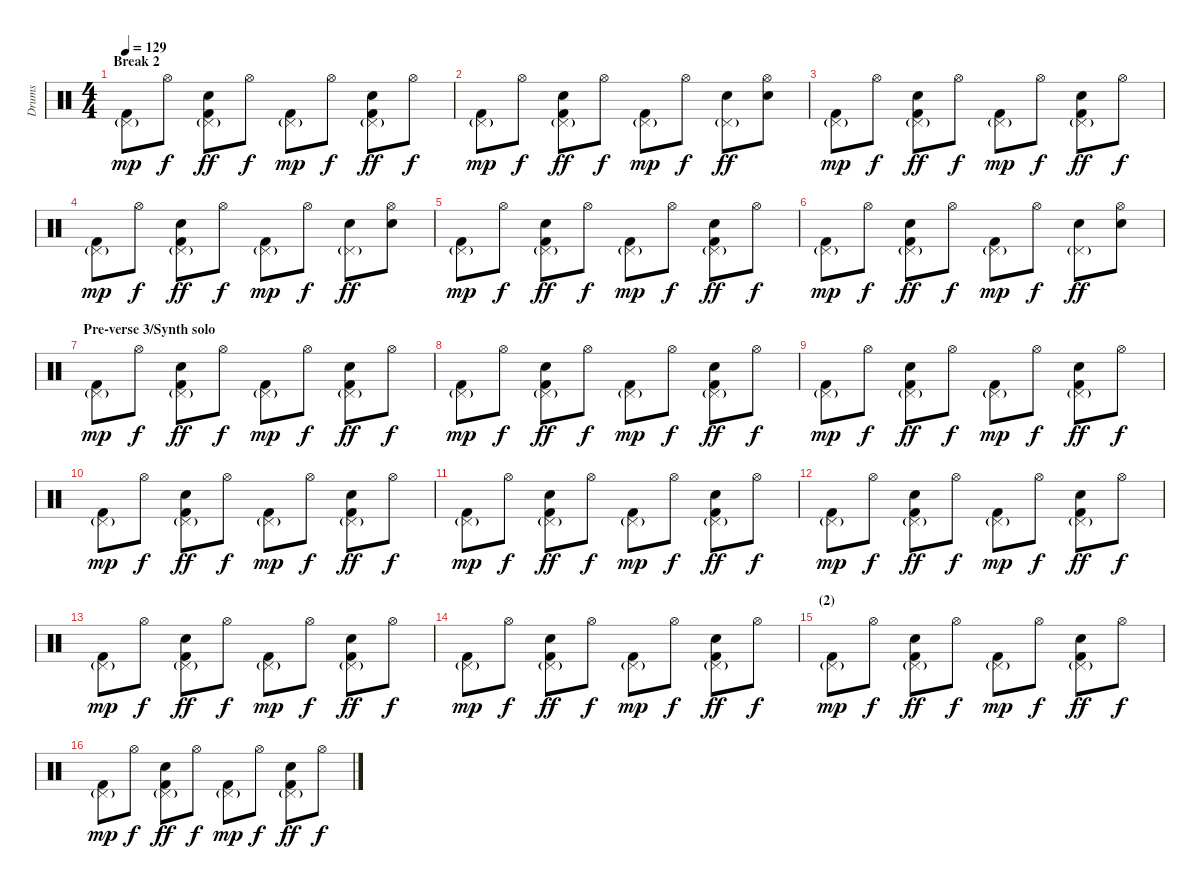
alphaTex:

\track ("Drums" "Drums") {instrument percussion}
\staff {score}
\articulation defaults
\ts (4 4)
\section ("" "Break 2")
\tempo 129
\clef neutral
\ks c
("Pedal Hi-Hat (hit)"{g} "Kick (hit) 2").8{dy mp} "Hi-Hat (open)".8{dy f} ("Pedal Hi-Hat (hit)"{g} "Electric Snare (hit)" "Kick (hit) 2").8{dy ff} "Hi-Hat (open)".8{dy f} ("Pedal Hi-Hat (hit)"{g} "Kick (hit) 2").8{dy mp} "Hi-Hat (open)".8{dy f} ("Pedal Hi-Hat (hit)"{g} "Electric Snare (hit)" "Kick (hit) 2").8{dy ff} "Hi-Hat (open)".8{dy f} |
("Pedal Hi-Hat (hit)"{g} "Kick (hit) 2").8{dy mp} "Hi-Hat (open)".8{dy f} ("Pedal Hi-Hat (hit)"{g} "Electric Snare (hit)" "Kick (hit) 2").8{dy ff} "Hi-Hat (open)".8{dy f} ("Pedal Hi-Hat (hit)"{g} "Kick (hit) 2").8{dy mp} "Hi-Hat (open)".8{dy f} ("Pedal Hi-Hat (hit)"{g} "Electric Snare (hit)").8{dy ff} ("Hi-Hat (open)" "Electric Snare (hit)").8 |
("Pedal Hi-Hat (hit)"{g} "Kick (hit) 2").8{dy mp} "Hi-Hat (open)".8{dy f} ("Pedal Hi-Hat (hit)"{g} "Electric Snare (hit)" "Kick (hit) 2").8{dy ff} "Hi-Hat (open)".8{dy f} ("Pedal Hi-Hat (hit)"{g} "Kick (hit) 2").8{dy mp} "Hi-Hat (open)".8{dy f} ("Pedal Hi-Hat (hit)"{g} "Electric Snare (hit)" "Kick (hit) 2").8{dy ff} "Hi-Hat (open)".8{dy f} |
("Pedal Hi-Hat (hit)"{g} "Kick (hit) 2").8{dy mp} "Hi-Hat (open)".8{dy f} ("Pedal Hi-Hat (hit)"{g} "Electric Snare (hit)" "Kick (hit) 2").8{dy ff} "Hi-Hat (open)".8{dy f} ("Pedal Hi-Hat (hit)"{g} "Kick (hit) 2").8{dy mp} "Hi-Hat (open)".8{dy f} ("Pedal Hi-Hat (hit)"{g} "Electric Snare (hit)").8{dy ff} ("Hi-Hat (open)" "Electric Snare (hit)").8 |
("Pedal Hi-Hat (hit)"{g} "Kick (hit) 2").8{dy mp} "Hi-Hat (open)".8{dy f} ("Pedal Hi-Hat (hit)"{g} "Electric Snare (hit)" "Kick (hit) 2").8{dy ff} "Hi-Hat (open)".8{dy f} ("Pedal Hi-Hat (hit)"{g} "Kick (hit) 2").8{dy mp} "Hi-Hat (open)".8{dy f} ("Pedal Hi-Hat (hit)"{g} "Electric Snare (hit)" "Kick (hit) 2").8{dy ff} "Hi-Hat (open)".8{dy f} |
("Pedal Hi-Hat (hit)"{g} "Kick (hit) 2").8{dy mp} "Hi-Hat (open)".8{dy f} ("Pedal Hi-Hat (hit)"{g} "Electric Snare (hit)" "Kick (hit) 2").8{dy ff} "Hi-Hat (open)".8{dy f} ("Pedal Hi-Hat (hit)"{g} "Kick (hit) 2").8{dy mp} "Hi-Hat (open)".8{dy f} ("Pedal Hi-Hat (hit)"{g} "Electric Snare (hit)").8{dy ff} ("Hi-Hat (open)" "Electric Snare (hit)").8 |
\section ("" "Pre-verse 3/Synth solo")
("Pedal Hi-Hat (hit)"{g} "Kick (hit) 2").8{dy mp} "Hi-Hat (open)".8{dy f} ("Pedal Hi-Hat (hit)"{g} "Electric Snare (hit)" "Kick (hit) 2").8{dy ff} "Hi-Hat (open)".8{dy f} ("Pedal Hi-Hat (hit)"{g} "Kick (hit) 2").8{dy mp} "Hi-Hat (open)".8{dy f} ("Pedal Hi-Hat (hit)"{g} "Electric Snare (hit)" "Kick (hit) 2").8{dy ff} "Hi-Hat (open)".8{dy f} |
("Pedal Hi-Hat (hit)"{g} "Kick (hit) 2").8{dy mp} "Hi-Hat (open)".8{dy f} ("Pedal Hi-Hat (hit)"{g} "Electric Snare (hit)" "Kick (hit) 2").8{dy ff} "Hi-Hat (open)".8{dy f} ("Pedal Hi-Hat (hit)"{g} "Kick (hit) 2").8{dy mp} "Hi-Hat (open)".8{dy f} ("Pedal Hi-Hat (hit)"{g} "Electric Snare (hit)" "Kick (hit) 2").8{dy ff} "Hi-Hat (open)".8{dy f} |
("Pedal Hi-Hat (hit)"{g} "Kick (hit) 2").8{dy mp} "Hi-Hat (open)".8{dy f} ("Pedal Hi-Hat (hit)"{g} "Electric Snare (hit)" "Kick (hit) 2").8{dy ff} "Hi-Hat (open)".8{dy f} ("Pedal Hi-Hat (hit)"{g} "Kick (hit) 2").8{dy mp} "Hi-Hat (open)".8{dy f} ("Pedal Hi-Hat (hit)"{g} "Electric Snare (hit)" "Kick (hit) 2").8{dy ff} "Hi-Hat (open)".8{dy f} |
("Pedal Hi-Hat (hit)"{g} "Kick (hit) 2").8{dy mp} "Hi-Hat (open)".8{dy f} ("Pedal Hi-Hat (hit)"{g} "Electric Snare (hit)" "Kick (hit) 2").8{dy ff} "Hi-Hat (open)".8{dy f} ("Pedal Hi-Hat (hit)"{g} "Kick (hit) 2").8{dy mp} "Hi-Hat (open)".8{dy f} ("Pedal Hi-Hat (hit)"{g} "Electric Snare (hit)" "Kick (hit) 2").8{dy ff} "Hi-Hat (open)".8{dy f} |
("Pedal Hi-Hat (hit)"{g} "Kick (hit) 2").8{dy mp} "Hi-Hat (open)".8{dy f} ("Pedal Hi-Hat (hit)"{g} "Electric Snare (hit)" "Kick (hit) 2").8{dy ff} "Hi-Hat (open)".8{dy f} ("Pedal Hi-Hat (hit)"{g} "Kick (hit) 2").8{dy mp} "Hi-Hat (open)".8{dy f} ("Pedal Hi-Hat (hit)"{g} "Electric Snare (hit)" "Kick (hit) 2").8{dy ff} "Hi-Hat (open)".8{dy f} |
("Pedal Hi-Hat (hit)"{g} "Kick (hit) 2").8{dy mp} "Hi-Hat (open)".8{dy f} ("Pedal Hi-Hat (hit)"{g} "Electric Snare (hit)" "Kick (hit) 2").8{dy ff} "Hi-Hat (open)".8{dy f} ("Pedal Hi-Hat (hit)"{g} "Kick (hit) 2").8{dy mp} "Hi-Hat (open)".8{dy f} ("Pedal Hi-Hat (hit)"{g} "Electric Snare (hit)" "Kick (hit) 2").8{dy ff} "Hi-Hat (open)".8{dy f} |
("Pedal Hi-Hat (hit)"{g} "Kick (hit) 2").8{dy mp} "Hi-Hat (open)".8{dy f} ("Pedal Hi-Hat (hit)"{g} "Electric Snare (hit)" "Kick (hit) 2").8{dy ff} "Hi-Hat (open)".8{dy f} ("Pedal Hi-Hat (hit)"{g} "Kick (hit) 2").8{dy mp} "Hi-Hat (open)".8{dy f} ("Pedal Hi-Hat (hit)"{g} "Electric Snare (hit)" "Kick (hit) 2").8{dy ff} "Hi-Hat (open)".8{dy f} |
("Pedal Hi-Hat (hit)"{g} "Kick (hit) 2").8{dy mp} "Hi-Hat (open)".8{dy f} ("Pedal Hi-Hat (hit)"{g} "Electric Snare (hit)" "Kick (hit) 2").8{dy ff} "Hi-Hat (open)".8{dy f} ("Pedal Hi-Hat (hit)"{g} "Kick (hit) 2").8{dy mp} "Hi-Hat (open)".8{dy f} ("Pedal Hi-Hat (hit)"{g} "Electric Snare (hit)" "Kick (hit) 2").8{dy ff} "Hi-Hat (open)".8{dy f} |
\section ("" "(2)")
("Pedal Hi-Hat (hit)"{g} "Kick (hit) 2").8{dy mp} "Hi-Hat (open)".8{dy f} ("Pedal Hi-Hat (hit)"{g} "Electric Snare (hit)" "Kick (hit) 2").8{dy ff} "Hi-Hat (open)".8{dy f} ("Pedal Hi-Hat (hit)"{g} "Kick (hit) 2").8{dy mp} "Hi-Hat (open)".8{dy f} ("Pedal Hi-Hat (hit)"{g} "Electric Snare (hit)" "Kick (hit) 2").8{dy ff} "Hi-Hat (open)".8{dy f} |
("Pedal Hi-Hat (hit)"{g} "Kick (hit) 2").8{dy mp} "Hi-Hat (open)".8{dy f} ("Pedal Hi-Hat (hit)"{g} "Electric Snare (hit)" "Kick (hit) 2").8{dy ff} "Hi-Hat (open)".8{dy f} ("Pedal Hi-Hat (hit)"{g} "Kick (hit) 2").8{dy mp} "Hi-Hat (open)".8{dy f} ("Pedal Hi-Hat (hit)"{g} "Electric Snare (hit)" "Kick (hit) 2").8{dy ff} "Hi-Hat (open)".8{dy f}
